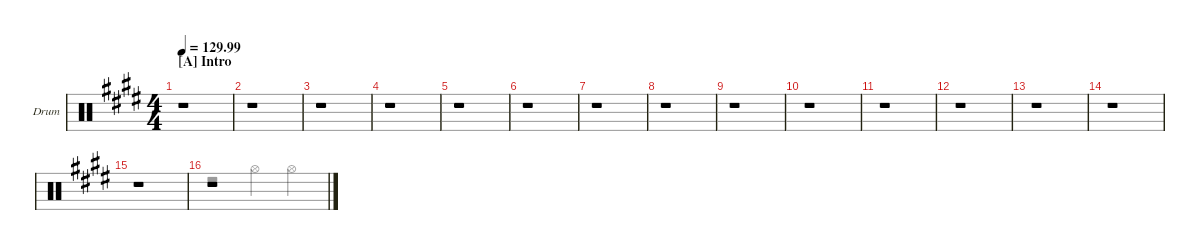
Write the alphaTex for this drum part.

\defaultSystemsLayout 4
\hideDynamics
\bracketExtendMode nobrackets
\firstSystemTrackNameOrientation horizontal
\otherSystemsTrackNameOrientation horizontal
\track ("BATTERIE" "Drum") {defaultSystemsLayout 4 instrument percussion}
\staff {score}
\articulation defaults
\voice
\ts (4 4)
\beaming (8 2 2 2 2)
\section ("A" "Intro")
\tempo
129.99
\accidentals auto
\clef neutral
\ottava regular
\simile none
\ks e
r.1{dy mf} |
r.1 |
r.1 |
r.1 |
r.1 |
r.1 |
r.1 |
r.1 |
r.1 |
r.1 |
r.1 |
r.1 |
r.1 |
r.1 |
r.1 |
r.1
\voice
\clef neutral
\ottava regular
\simile none
\ks e
|
|
|
|
|
|
|
|
|
|
|
|
|
|
|
r.2 "Hi-Hat (open)".4 "Hi-Hat (open)".4
